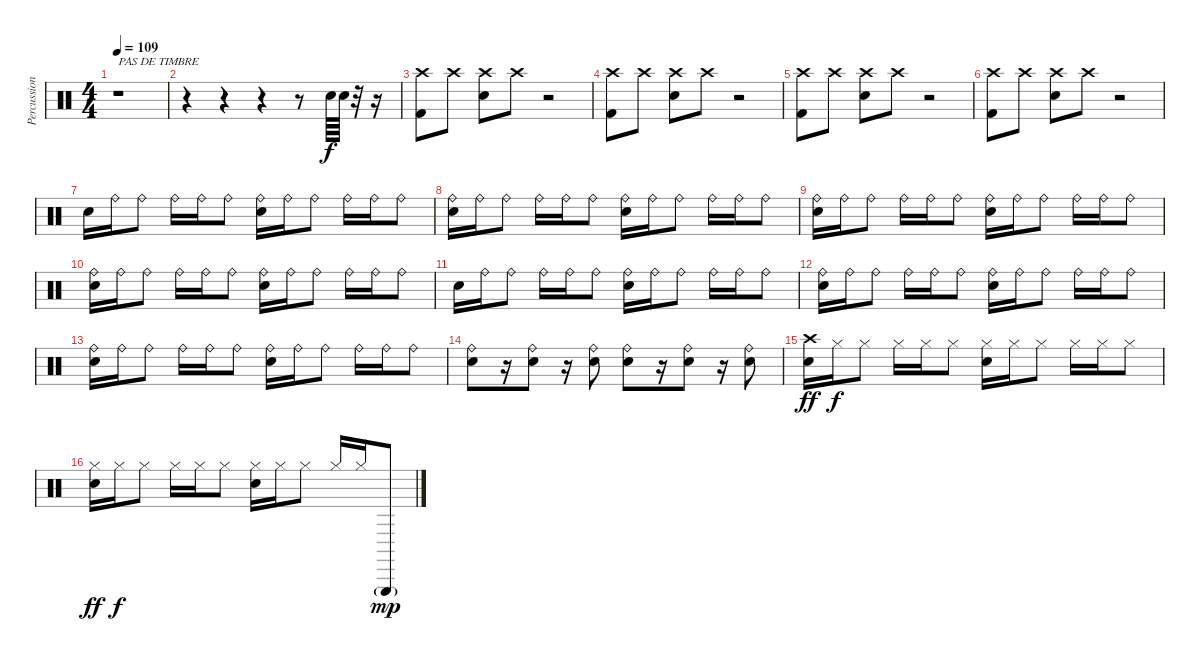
\track ("Percussions" "Percussion") {instrument percussion}
\staff {score}
\articulation defaults
\ts (4 4)
\tempo 109
\clef neutral
\ks c
r.1{txt "PAS DE TIMBRE" dy f} |
r.4 r.4 r.4 r.8 "Electric Snare (hit)".64 "Electric Snare (hit)".64 r.32 r.16 |
("Crash high (hit)" "Kick (hit) 2").8 "Crash high (hit)".8 ("Crash high (hit)" "Electric Snare (hit)").8 "Crash high (hit)".8 r.2 |
("Crash high (hit)" "Kick (hit) 2").8 "Crash high (hit)".8 ("Crash high (hit)" "Electric Snare (hit)").8 "Crash high (hit)".8 r.2 |
("Crash high (hit)" "Kick (hit) 2").8 "Crash high (hit)".8 ("Crash high (hit)" "Electric Snare (hit)").8 "Crash high (hit)".8 r.2 |
("Crash high (hit)" "Kick (hit) 2").8 "Crash high (hit)".8 ("Crash high (hit)" "Electric Snare (hit)").8 "Crash high (hit)".8 r.2 |
"Electric Snare (hit)".16 "Ride (bell)".16 "Ride (bell)".8 "Ride (bell)".16 "Ride (bell)".16 "Ride (bell)".8 ("Ride (bell)" "Electric Snare (hit)").16 "Ride (bell)".16 "Ride (bell)".8 "Ride (bell)".16 "Ride (bell)".16 "Ride (bell)".8 |
("Ride (bell)" "Electric Snare (hit)").16 "Ride (bell)".16 "Ride (bell)".8 "Ride (bell)".16 "Ride (bell)".16 "Ride (bell)".8 ("Ride (bell)" "Electric Snare (hit)").16 "Ride (bell)".16 "Ride (bell)".8 "Ride (bell)".16 "Ride (bell)".16 "Ride (bell)".8 |
("Ride (bell)" "Electric Snare (hit)").16 "Ride (bell)".16 "Ride (bell)".8 "Ride (bell)".16 "Ride (bell)".16 "Ride (bell)".8 ("Ride (bell)" "Electric Snare (hit)").16 "Ride (bell)".16 "Ride (bell)".8 "Ride (bell)".16 "Ride (bell)".16 "Ride (bell)".8 |
("Ride (bell)" "Electric Snare (hit)").16 "Ride (bell)".16 "Ride (bell)".8 "Ride (bell)".16 "Ride (bell)".16 "Ride (bell)".8 ("Ride (bell)" "Electric Snare (hit)").16 "Ride (bell)".16 "Ride (bell)".8 "Ride (bell)".16 "Ride (bell)".16 "Ride (bell)".8 |
"Electric Snare (hit)".16 "Ride (bell)".16 "Ride (bell)".8 "Ride (bell)".16 "Ride (bell)".16 "Ride (bell)".8 ("Ride (bell)" "Electric Snare (hit)").16 "Ride (bell)".16 "Ride (bell)".8 "Ride (bell)".16 "Ride (bell)".16 "Ride (bell)".8 |
("Ride (bell)" "Electric Snare (hit)").16 "Ride (bell)".16 "Ride (bell)".8 "Ride (bell)".16 "Ride (bell)".16 "Ride (bell)".8 ("Ride (bell)" "Electric Snare (hit)").16 "Ride (bell)".16 "Ride (bell)".8 "Ride (bell)".16 "Ride (bell)".16 "Ride (bell)".8 |
("Ride (bell)" "Electric Snare (hit)").16 "Ride (bell)".16 "Ride (bell)".8 "Ride (bell)".16 "Ride (bell)".16 "Ride (bell)".8 ("Ride (bell)" "Electric Snare (hit)").16 "Ride (bell)".16 "Ride (bell)".8 "Ride (bell)".16 "Ride (bell)".16 "Ride (bell)".8 |
("Ride (bell)" "Electric Snare (hit)").8 r.16 ("Ride (bell)" "Electric Snare (hit)").8 r.16 ("Ride (bell)" "Electric Snare (hit)").8 ("Ride (bell)" "Electric Snare (hit)").8 r.16 ("Ride (bell)" "Electric Snare (hit)").8 r.16 ("Ride (bell)" "Electric Snare (hit)").8 |
("Crash high (hit)" "Electric Snare (hit)").16{dy ff} "Hi-Hat (closed)".16{dy f} "Hi-Hat (closed)".8 "Hi-Hat (closed)".16 "Hi-Hat (closed)".16 "Hi-Hat (closed)".8 ("Hi-Hat (closed)" "Electric Snare (hit)").16 "Hi-Hat (closed)".16 "Hi-Hat (closed)".8 "Hi-Hat (closed)".16 "Hi-Hat (closed)".16 "Hi-Hat (closed)".8 |
("Hi-Hat (closed)" "Electric Snare (hit)").16{dy ff} "Hi-Hat (closed)".16{dy f} "Hi-Hat (closed)".8 "Hi-Hat (closed)".16 "Hi-Hat (closed)".16 "Hi-Hat (closed)".8 ("Hi-Hat (closed)" "Electric Snare (hit)").16 "Hi-Hat (closed)".16 "Hi-Hat (closed)".8 "Hi-Hat (closed)".16 "Hi-Hat (closed)".16 "Triangle (hit)"{g}.8{dy mp}
